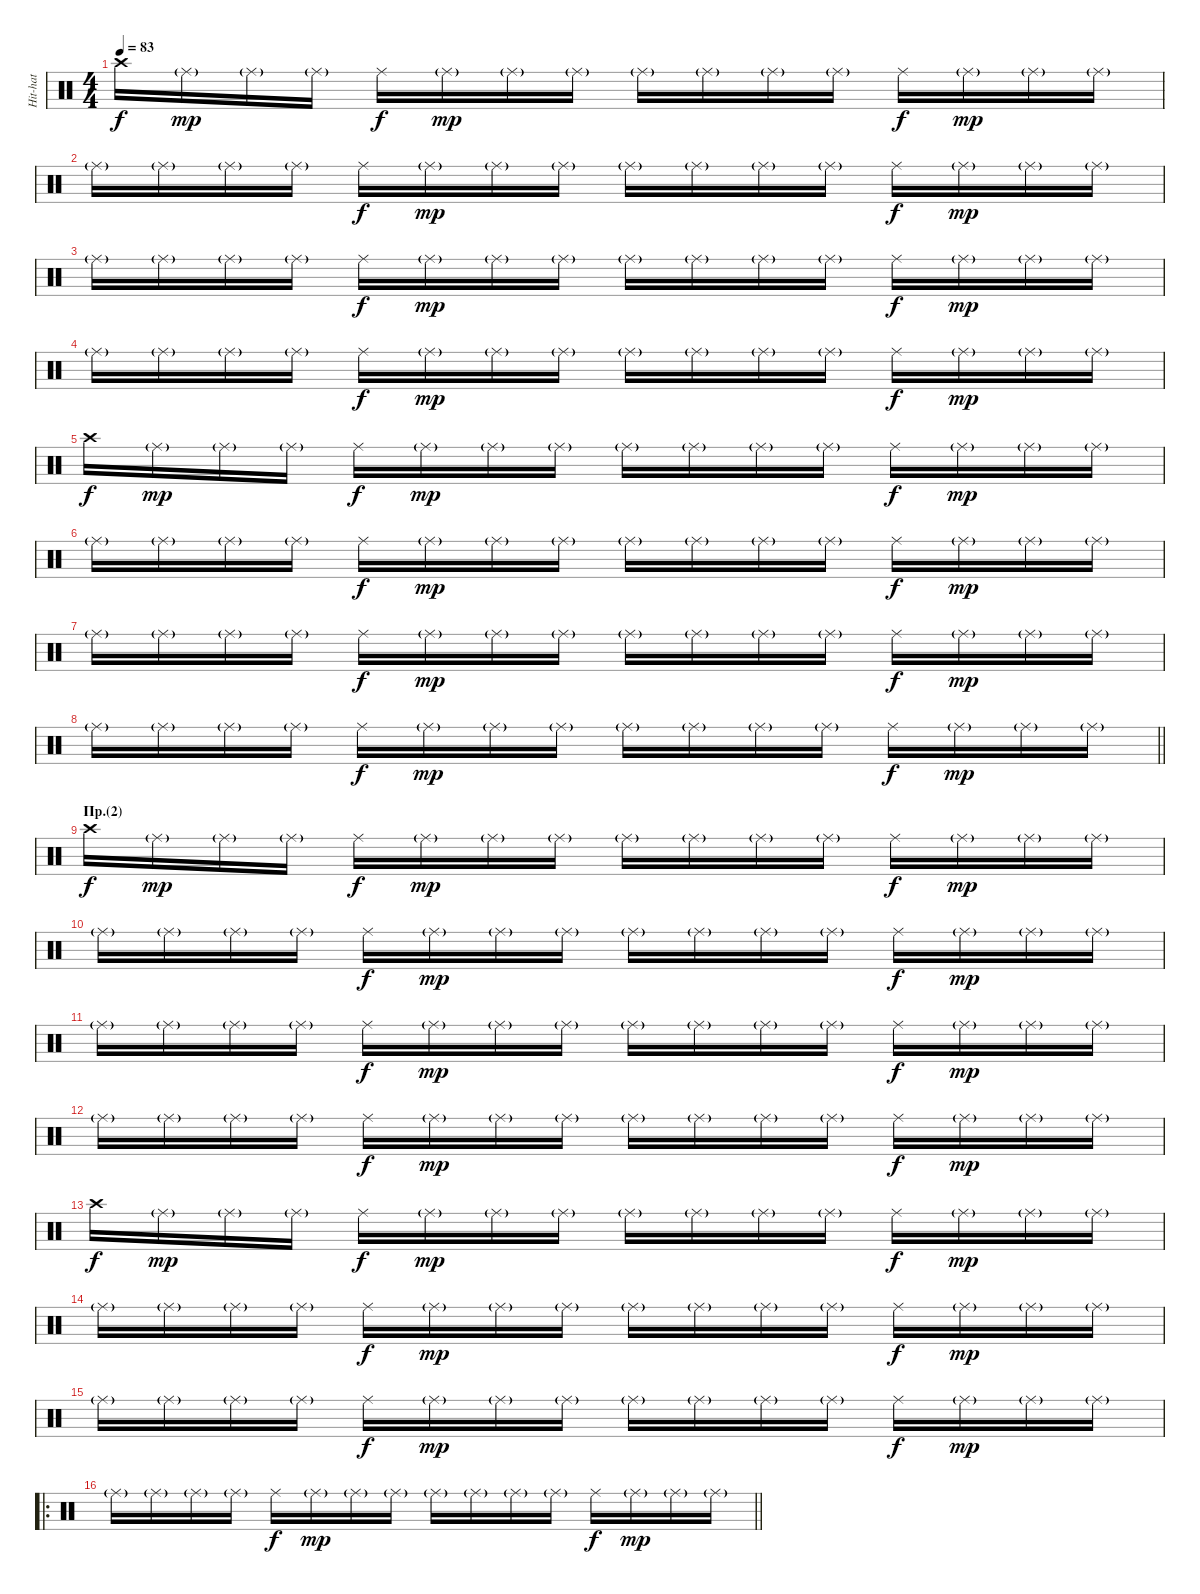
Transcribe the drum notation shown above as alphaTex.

\track ("Hit-hat" "Hit-hat") {instrument percussion}
\staff {score}
\articulation defaults
\ts (4 4)
\tempo 83
\clef neutral
\ks c "Crash high (hit)".16{dy f} "Ride (middle)"{g}.16{dy mp} "Ride (middle)"{g}.16 "Ride (middle)"{g}.16 "Ride (middle)".16{dy f} "Ride (middle)"{g}.16{dy mp} "Ride (middle)"{g}.16 "Ride (middle)"{g}.16 "Ride (middle)"{g}.16 "Ride (middle)"{g}.16 "Ride (middle)"{g}.16 "Ride (middle)"{g}.16 "Ride (middle)".16{dy f} "Ride (middle)"{g}.16{dy mp} "Ride (middle)"{g}.16 "Ride (middle)"{g}.16
|
"Ride (middle)"{g}.16 "Ride (middle)"{g}.16 "Ride (middle)"{g}.16 "Ride (middle)"{g}.16 "Ride (middle)".16{dy f} "Ride (middle)"{g}.16{dy mp} "Ride (middle)"{g}.16 "Ride (middle)"{g}.16 "Ride (middle)"{g}.16 "Ride (middle)"{g}.16 "Ride (middle)"{g}.16 "Ride (middle)"{g}.16 "Ride (middle)".16{dy f} "Ride (middle)"{g}.16{dy mp} "Ride (middle)"{g}.16 "Ride (middle)"{g}.16 |
"Ride (middle)"{g}.16 "Ride (middle)"{g}.16 "Ride (middle)"{g}.16 "Ride (middle)"{g}.16 "Ride (middle)".16{dy f} "Ride (middle)"{g}.16{dy mp} "Ride (middle)"{g}.16 "Ride (middle)"{g}.16 "Ride (middle)"{g}.16 "Ride (middle)"{g}.16 "Ride (middle)"{g}.16 "Ride (middle)"{g}.16 "Ride (middle)".16{dy f} "Ride (middle)"{g}.16{dy mp} "Ride (middle)"{g}.16 "Ride (middle)"{g}.16 |
"Ride (middle)"{g}.16 "Ride (middle)"{g}.16 "Ride (middle)"{g}.16 "Ride (middle)"{g}.16 "Ride (middle)".16{dy f} "Ride (middle)"{g}.16{dy mp} "Ride (middle)"{g}.16 "Ride (middle)"{g}.16 "Ride (middle)"{g}.16 "Ride (middle)"{g}.16 "Ride (middle)"{g}.16 "Ride (middle)"{g}.16 "Ride (middle)".16{dy f} "Ride (middle)"{g}.16{dy mp} "Ride (middle)"{g}.16 "Ride (middle)"{g}.16 |
"Crash high (hit)".16{dy f} "Ride (middle)"{g}.16{dy mp} "Ride (middle)"{g}.16 "Ride (middle)"{g}.16 "Ride (middle)".16{dy f} "Ride (middle)"{g}.16{dy mp} "Ride (middle)"{g}.16 "Ride (middle)"{g}.16 "Ride (middle)"{g}.16 "Ride (middle)"{g}.16 "Ride (middle)"{g}.16 "Ride (middle)"{g}.16 "Ride (middle)".16{dy f} "Ride (middle)"{g}.16{dy mp} "Ride (middle)"{g}.16 "Ride (middle)"{g}.16 |
"Ride (middle)"{g}.16 "Ride (middle)"{g}.16 "Ride (middle)"{g}.16 "Ride (middle)"{g}.16 "Ride (middle)".16{dy f} "Ride (middle)"{g}.16{dy mp} "Ride (middle)"{g}.16 "Ride (middle)"{g}.16 "Ride (middle)"{g}.16 "Ride (middle)"{g}.16 "Ride (middle)"{g}.16 "Ride (middle)"{g}.16 "Ride (middle)".16{dy f} "Ride (middle)"{g}.16{dy mp} "Ride (middle)"{g}.16 "Ride (middle)"{g}.16 |
"Ride (middle)"{g}.16 "Ride (middle)"{g}.16 "Ride (middle)"{g}.16 "Ride (middle)"{g}.16 "Ride (middle)".16{dy f} "Ride (middle)"{g}.16{dy mp} "Ride (middle)"{g}.16 "Ride (middle)"{g}.16 "Ride (middle)"{g}.16 "Ride (middle)"{g}.16 "Ride (middle)"{g}.16 "Ride (middle)"{g}.16 "Ride (middle)".16{dy f} "Ride (middle)"{g}.16{dy mp} "Ride (middle)"{g}.16 "Ride (middle)"{g}.16 |
\barLineRight lightlight "Ride (middle)"{g}.16 "Ride (middle)"{g}.16 "Ride (middle)"{g}.16 "Ride (middle)"{g}.16 "Ride (middle)".16{dy f} "Ride (middle)"{g}.16{dy mp} "Ride (middle)"{g}.16 "Ride (middle)"{g}.16 "Ride (middle)"{g}.16 "Ride (middle)"{g}.16 "Ride (middle)"{g}.16 "Ride (middle)"{g}.16 "Ride (middle)".16{dy f} "Ride (middle)"{g}.16{dy mp} "Ride (middle)"{g}.16 "Ride (middle)"{g}.16
|
\section ("" "Пр.(2)")
"Crash high (hit)".16{dy f} "Ride (middle)"{g}.16{dy mp} "Ride (middle)"{g}.16 "Ride (middle)"{g}.16 "Ride (middle)".16{dy f} "Ride (middle)"{g}.16{dy mp} "Ride (middle)"{g}.16 "Ride (middle)"{g}.16 "Ride (middle)"{g}.16 "Ride (middle)"{g}.16 "Ride (middle)"{g}.16 "Ride (middle)"{g}.16 "Ride (middle)".16{dy f} "Ride (middle)"{g}.16{dy mp} "Ride (middle)"{g}.16 "Ride (middle)"{g}.16 |
"Ride (middle)"{g}.16 "Ride (middle)"{g}.16 "Ride (middle)"{g}.16 "Ride (middle)"{g}.16 "Ride (middle)".16{dy f} "Ride (middle)"{g}.16{dy mp} "Ride (middle)"{g}.16 "Ride (middle)"{g}.16 "Ride (middle)"{g}.16 "Ride (middle)"{g}.16 "Ride (middle)"{g}.16 "Ride (middle)"{g}.16 "Ride (middle)".16{dy f} "Ride (middle)"{g}.16{dy mp} "Ride (middle)"{g}.16 "Ride (middle)"{g}.16 |
"Ride (middle)"{g}.16 "Ride (middle)"{g}.16 "Ride (middle)"{g}.16 "Ride (middle)"{g}.16 "Ride (middle)".16{dy f} "Ride (middle)"{g}.16{dy mp} "Ride (middle)"{g}.16 "Ride (middle)"{g}.16 "Ride (middle)"{g}.16 "Ride (middle)"{g}.16 "Ride (middle)"{g}.16 "Ride (middle)"{g}.16 "Ride (middle)".16{dy f} "Ride (middle)"{g}.16{dy mp} "Ride (middle)"{g}.16 "Ride (middle)"{g}.16 |
"Ride (middle)"{g}.16 "Ride (middle)"{g}.16 "Ride (middle)"{g}.16 "Ride (middle)"{g}.16 "Ride (middle)".16{dy f} "Ride (middle)"{g}.16{dy mp} "Ride (middle)"{g}.16 "Ride (middle)"{g}.16 "Ride (middle)"{g}.16 "Ride (middle)"{g}.16 "Ride (middle)"{g}.16 "Ride (middle)"{g}.16 "Ride (middle)".16{dy f} "Ride (middle)"{g}.16{dy mp} "Ride (middle)"{g}.16 "Ride (middle)"{g}.16 |
"Crash high (hit)".16{dy f} "Ride (middle)"{g}.16{dy mp} "Ride (middle)"{g}.16 "Ride (middle)"{g}.16 "Ride (middle)".16{dy f} "Ride (middle)"{g}.16{dy mp} "Ride (middle)"{g}.16 "Ride (middle)"{g}.16 "Ride (middle)"{g}.16 "Ride (middle)"{g}.16 "Ride (middle)"{g}.16 "Ride (middle)"{g}.16 "Ride (middle)".16{dy f} "Ride (middle)"{g}.16{dy mp} "Ride (middle)"{g}.16 "Ride (middle)"{g}.16 |
"Ride (middle)"{g}.16 "Ride (middle)"{g}.16 "Ride (middle)"{g}.16 "Ride (middle)"{g}.16 "Ride (middle)".16{dy f} "Ride (middle)"{g}.16{dy mp} "Ride (middle)"{g}.16 "Ride (middle)"{g}.16 "Ride (middle)"{g}.16 "Ride (middle)"{g}.16 "Ride (middle)"{g}.16 "Ride (middle)"{g}.16 "Ride (middle)".16{dy f} "Ride (middle)"{g}.16{dy mp} "Ride (middle)"{g}.16 "Ride (middle)"{g}.16 |
"Ride (middle)"{g}.16 "Ride (middle)"{g}.16 "Ride (middle)"{g}.16 "Ride (middle)"{g}.16 "Ride (middle)".16{dy f} "Ride (middle)"{g}.16{dy mp} "Ride (middle)"{g}.16 "Ride (middle)"{g}.16 "Ride (middle)"{g}.16 "Ride (middle)"{g}.16 "Ride (middle)"{g}.16 "Ride (middle)"{g}.16 "Ride (middle)".16{dy f} "Ride (middle)"{g}.16{dy mp} "Ride (middle)"{g}.16 "Ride (middle)"{g}.16 |
\ro
\barLineRight lightlight "Ride (middle)"{g}.16 "Ride (middle)"{g}.16 "Ride (middle)"{g}.16 "Ride (middle)"{g}.16 "Ride (middle)".16{dy f} "Ride (middle)"{g}.16{dy mp} "Ride (middle)"{g}.16 "Ride (middle)"{g}.16 "Ride (middle)"{g}.16 "Ride (middle)"{g}.16 "Ride (middle)"{g}.16 "Ride (middle)"{g}.16 "Ride (middle)".16{dy f} "Ride (middle)"{g}.16{dy mp} "Ride (middle)"{g}.16 "Ride (middle)"{g}.16
